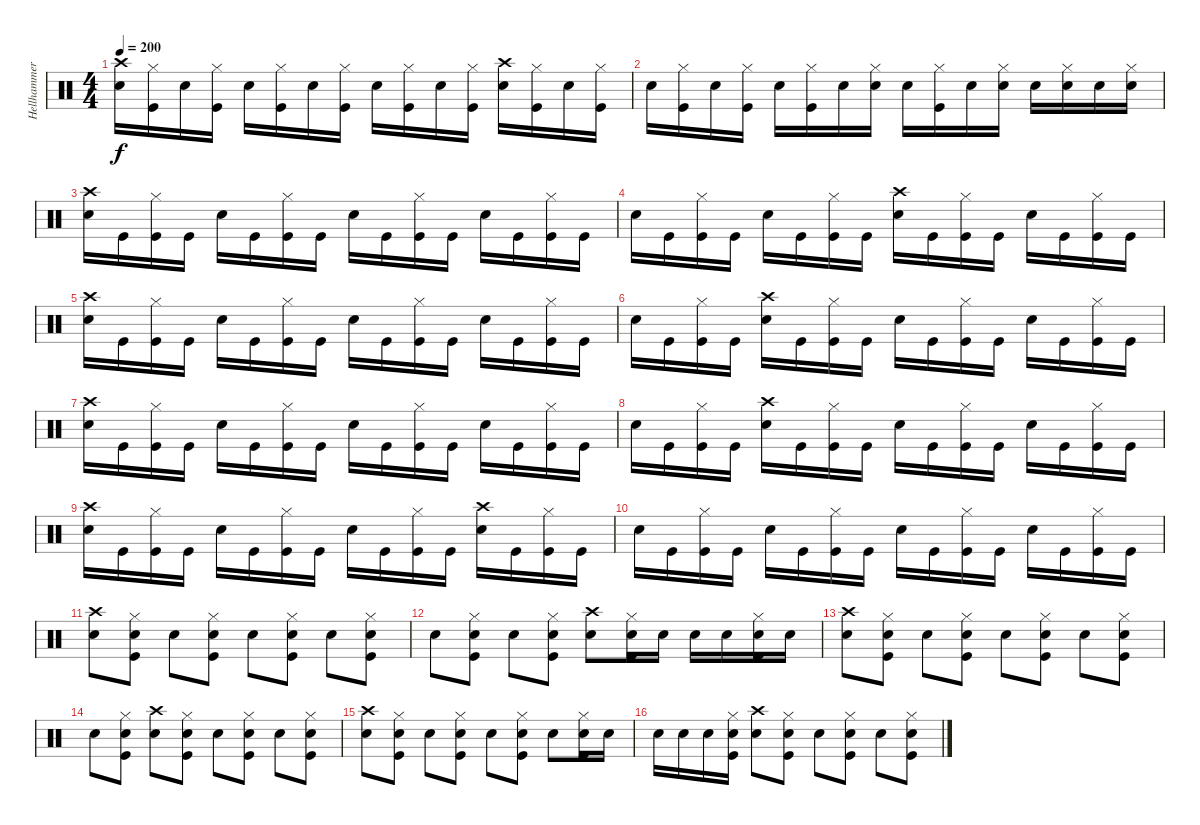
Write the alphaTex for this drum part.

\track ("Hellhammer" "Hellhammer") {instrument percussion}
\staff {score}
\articulation defaults
\ts (4 4)
\tempo 200
\clef neutral
\ks c
("Snare (hit) 2" "Crash high (hit)").16{dy f} ("Kick (hit)" "Hi-Hat (closed)").16 "Snare (hit) 2".16 ("Kick (hit)" "Hi-Hat (closed)").16 "Snare (hit) 2".16 ("Kick (hit)" "Hi-Hat (closed)").16 "Snare (hit) 2".16 ("Kick (hit)" "Hi-Hat (closed)").16 "Snare (hit) 2".16 ("Kick (hit)" "Hi-Hat (closed)").16 "Snare (hit) 2".16 ("Kick (hit)" "Hi-Hat (closed)").16 ("Snare (hit) 2" "Crash high (hit)").16 ("Kick (hit)" "Hi-Hat (closed)").16 "Snare (hit) 2".16 ("Kick (hit)" "Hi-Hat (closed)").16 |
"Snare (hit) 2".16 ("Kick (hit)" "Hi-Hat (closed)").16 "Snare (hit) 2".16 ("Kick (hit)" "Hi-Hat (closed)").16 "Snare (hit) 2".16 ("Kick (hit)" "Hi-Hat (closed)").16 "Snare (hit) 2".16 ("Snare (hit) 2" "Hi-Hat (closed)").16 "Snare (hit) 2".16 ("Kick (hit)" "Hi-Hat (closed)").16 "Snare (hit) 2".16 ("Snare (hit) 2" "Hi-Hat (closed)").16 "Snare (hit) 2".16 ("Snare (hit) 2" "Hi-Hat (closed)").16 "Snare (hit) 2".16 ("Snare (hit) 2" "Hi-Hat (closed)").16 |
("Snare (hit) 2" "Crash high (hit)").16 "Kick (hit)".16 ("Kick (hit)" "Hi-Hat (closed)").16 "Kick (hit)".16 "Snare (hit) 2".16 "Kick (hit)".16 ("Kick (hit)" "Hi-Hat (closed)").16 "Kick (hit)".16 "Snare (hit) 2".16 "Kick (hit)".16 ("Kick (hit)" "Hi-Hat (closed)").16 "Kick (hit)".16 "Snare (hit) 2".16 "Kick (hit)".16 ("Kick (hit)" "Hi-Hat (closed)").16 "Kick (hit)".16 |
"Snare (hit) 2".16 "Kick (hit)".16 ("Kick (hit)" "Hi-Hat (closed)").16 "Kick (hit)".16 "Snare (hit) 2".16 "Kick (hit)".16 ("Kick (hit)" "Hi-Hat (closed)").16 "Kick (hit)".16 ("Snare (hit) 2" "Crash high (hit)").16 "Kick (hit)".16 ("Kick (hit)" "Hi-Hat (closed)").16 "Kick (hit)".16 "Snare (hit) 2".16 "Kick (hit)".16 ("Kick (hit)" "Hi-Hat (closed)").16 "Kick (hit)".16 |
("Snare (hit) 2" "Crash high (hit)").16 "Kick (hit)".16 ("Kick (hit)" "Hi-Hat (closed)").16 "Kick (hit)".16 "Snare (hit) 2".16 "Kick (hit)".16 ("Kick (hit)" "Hi-Hat (closed)").16 "Kick (hit)".16 "Snare (hit) 2".16 "Kick (hit)".16 ("Kick (hit)" "Hi-Hat (closed)").16 "Kick (hit)".16 "Snare (hit) 2".16 "Kick (hit)".16 ("Kick (hit)" "Hi-Hat (closed)").16 "Kick (hit)".16 |
"Snare (hit) 2".16 "Kick (hit)".16 ("Kick (hit)" "Hi-Hat (closed)").16 "Kick (hit)".16 ("Snare (hit) 2" "Crash high (hit)").16 "Kick (hit)".16 ("Kick (hit)" "Hi-Hat (closed)").16 "Kick (hit)".16 "Snare (hit) 2".16 "Kick (hit)".16 ("Kick (hit)" "Hi-Hat (closed)").16 "Kick (hit)".16 "Snare (hit) 2".16 "Kick (hit)".16 ("Kick (hit)" "Hi-Hat (closed)").16 "Kick (hit)".16 |
("Snare (hit) 2" "Crash high (hit)").16 "Kick (hit)".16 ("Kick (hit)" "Hi-Hat (closed)").16 "Kick (hit)".16 "Snare (hit) 2".16 "Kick (hit)".16 ("Kick (hit)" "Hi-Hat (closed)").16 "Kick (hit)".16 "Snare (hit) 2".16 "Kick (hit)".16 ("Kick (hit)" "Hi-Hat (closed)").16 "Kick (hit)".16 "Snare (hit) 2".16 "Kick (hit)".16 ("Kick (hit)" "Hi-Hat (closed)").16 "Kick (hit)".16 |
"Snare (hit) 2".16 "Kick (hit)".16 ("Kick (hit)" "Hi-Hat (closed)").16 "Kick (hit)".16 ("Snare (hit) 2" "Crash high (hit)").16 "Kick (hit)".16 ("Kick (hit)" "Hi-Hat (closed)").16 "Kick (hit)".16 "Snare (hit) 2".16 "Kick (hit)".16 ("Kick (hit)" "Hi-Hat (closed)").16 "Kick (hit)".16 "Snare (hit) 2".16 "Kick (hit)".16 ("Kick (hit)" "Hi-Hat (closed)").16 "Kick (hit)".16 |
("Snare (hit) 2" "Crash high (hit)").16 "Kick (hit)".16 ("Kick (hit)" "Hi-Hat (closed)").16 "Kick (hit)".16 "Snare (hit) 2".16 "Kick (hit)".16 ("Kick (hit)" "Hi-Hat (closed)").16 "Kick (hit)".16 "Snare (hit) 2".16 "Kick (hit)".16 ("Kick (hit)" "Hi-Hat (closed)").16 "Kick (hit)".16 ("Snare (hit) 2" "Crash high (hit)").16 "Kick (hit)".16 ("Kick (hit)" "Hi-Hat (closed)").16 "Kick (hit)".16 |
"Snare (hit) 2".16 "Kick (hit)".16 ("Kick (hit)" "Hi-Hat (closed)").16 "Kick (hit)".16 "Snare (hit) 2".16 "Kick (hit)".16 ("Kick (hit)" "Hi-Hat (closed)").16 "Kick (hit)".16 "Snare (hit) 2".16 "Kick (hit)".16 ("Kick (hit)" "Hi-Hat (closed)").16 "Kick (hit)".16 "Snare (hit) 2".16 "Kick (hit)".16 ("Kick (hit)" "Hi-Hat (closed)").16 "Kick (hit)".16 |
("Snare (hit) 2" "Crash high (hit)").8 ("Snare (hit) 2" "Kick (hit)" "Hi-Hat (closed)").8 "Snare (hit) 2".8 ("Snare (hit) 2" "Kick (hit)" "Hi-Hat (closed)").8 "Snare (hit) 2".8 ("Snare (hit) 2" "Kick (hit)" "Hi-Hat (closed)").8 "Snare (hit) 2".8 ("Snare (hit) 2" "Kick (hit)" "Hi-Hat (closed)").8 |
"Snare (hit) 2".8 ("Snare (hit) 2" "Kick (hit)" "Hi-Hat (closed)").8 "Snare (hit) 2".8 ("Snare (hit) 2" "Kick (hit)" "Hi-Hat (closed)").8 ("Snare (hit) 2" "Crash high (hit)").8 ("Snare (hit) 2" "Kick (hit)" "Hi-Hat (closed)").16 "Snare (hit) 2".16 "Snare (hit) 2".16 "Snare (hit) 2".16 ("Snare (hit) 2" "Kick (hit)" "Hi-Hat (closed)").16 "Snare (hit) 2".16 |
("Snare (hit) 2" "Crash high (hit)").8 ("Snare (hit) 2" "Kick (hit)" "Hi-Hat (closed)").8 "Snare (hit) 2".8 ("Snare (hit) 2" "Kick (hit)" "Hi-Hat (closed)").8 "Snare (hit) 2".8 ("Snare (hit) 2" "Kick (hit)" "Hi-Hat (closed)").8 "Snare (hit) 2".8 ("Snare (hit) 2" "Kick (hit)" "Hi-Hat (closed)").8 |
"Snare (hit) 2".8 ("Snare (hit) 2" "Kick (hit)" "Hi-Hat (closed)").8 ("Snare (hit) 2" "Crash high (hit)").8 ("Snare (hit) 2" "Kick (hit)" "Hi-Hat (closed)").8 "Snare (hit) 2".8 ("Snare (hit) 2" "Kick (hit)" "Hi-Hat (closed)").8 "Snare (hit) 2".8 ("Snare (hit) 2" "Kick (hit)" "Hi-Hat (closed)").8 |
("Snare (hit) 2" "Crash high (hit)").8 ("Snare (hit) 2" "Kick (hit)" "Hi-Hat (closed)").8 "Snare (hit) 2".8 ("Snare (hit) 2" "Kick (hit)" "Hi-Hat (closed)").8 "Snare (hit) 2".8 ("Snare (hit) 2" "Kick (hit)" "Hi-Hat (closed)").8 "Snare (hit) 2".8 ("Snare (hit) 2" "Kick (hit)" "Hi-Hat (closed)").16 "Snare (hit) 2".16 |
"Snare (hit) 2".16 "Snare (hit) 2".16 "Snare (hit) 2".16 ("Snare (hit) 2" "Kick (hit)" "Hi-Hat (closed)").16 ("Snare (hit) 2" "Crash high (hit)").8 ("Snare (hit) 2" "Kick (hit)" "Hi-Hat (closed)").8 "Snare (hit) 2".8 ("Snare (hit) 2" "Kick (hit)" "Hi-Hat (closed)").8 "Snare (hit) 2".8 ("Snare (hit) 2" "Kick (hit)" "Hi-Hat (closed)").8
